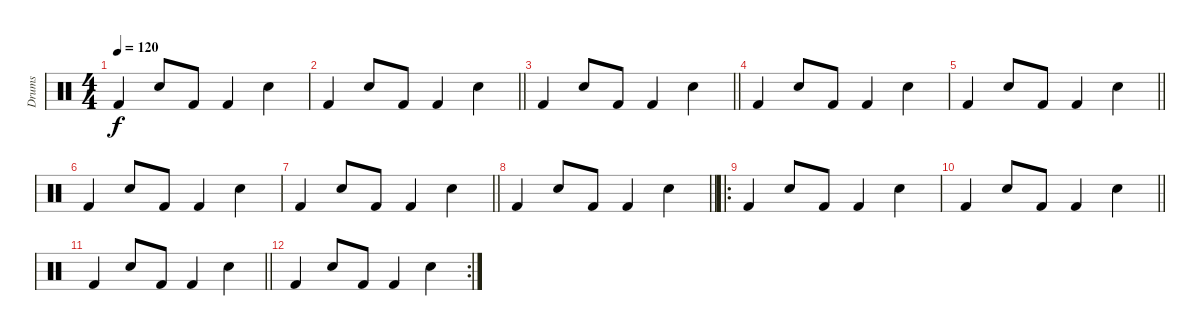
\track ("Drums" "Drums") {instrument percussion}
\staff {score}
\articulation defaults
\ts (4 4)
\tempo 120
\clef neutral
\ks c "Kick (hit) 2".4{dy f} "Snare (hit) 2".8 "Kick (hit) 2".8 "Kick (hit) 2".4 "Snare (hit) 2".4
|
\barLineRight lightlight "Kick (hit) 2".4 "Snare (hit) 2".8 "Kick (hit) 2".8 "Kick (hit) 2".4 "Snare (hit) 2".4
|
\barLineRight lightlight "Kick (hit) 2".4 "Snare (hit) 2".8 "Kick (hit) 2".8 "Kick (hit) 2".4 "Snare (hit) 2".4
|
"Kick (hit) 2".4 "Snare (hit) 2".8 "Kick (hit) 2".8 "Kick (hit) 2".4 "Snare (hit) 2".4 |
\barLineRight lightlight "Kick (hit) 2".4 "Snare (hit) 2".8 "Kick (hit) 2".8 "Kick (hit) 2".4 "Snare (hit) 2".4
|
"Kick (hit) 2".4 "Snare (hit) 2".8 "Kick (hit) 2".8 "Kick (hit) 2".4 "Snare (hit) 2".4 |
\barLineRight lightlight "Kick (hit) 2".4 "Snare (hit) 2".8 "Kick (hit) 2".8 "Kick (hit) 2".4 "Snare (hit) 2".4
|
\barLineRight lightlight "Kick (hit) 2".4 "Snare (hit) 2".8 "Kick (hit) 2".8 "Kick (hit) 2".4 "Snare (hit) 2".4
|
\ro "Kick (hit) 2".4 "Snare (hit) 2".8 "Kick (hit) 2".8 "Kick (hit) 2".4 "Snare (hit) 2".4
|
\barLineRight lightlight "Kick (hit) 2".4 "Snare (hit) 2".8 "Kick (hit) 2".8 "Kick (hit) 2".4 "Snare (hit) 2".4
|
\barLineRight lightlight "Kick (hit) 2".4 "Snare (hit) 2".8 "Kick (hit) 2".8 "Kick (hit) 2".4 "Snare (hit) 2".4
|
\rc 2 "Kick (hit) 2".4 "Snare (hit) 2".8 "Kick (hit) 2".8 "Kick (hit) 2".4 "Snare (hit) 2".4
